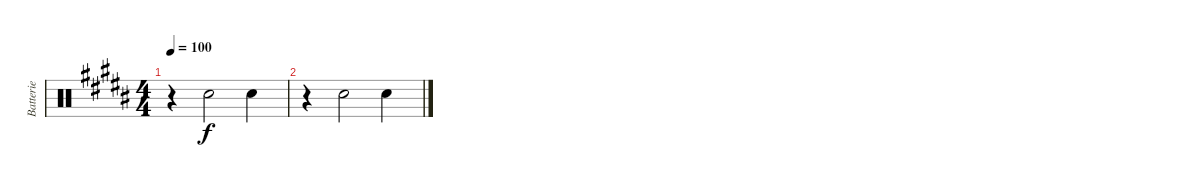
\track ("Batterie" "Batterie") {instrument percussion}
\staff {score}
\articulation defaults
\ts (4 4)
\tempo 100
\clef neutral
\ks b
r.4{dy f} "Snare (hit) 2".2 "Snare (hit) 2".4 |
r.4 "Snare (hit) 2".2 "Snare (hit) 2".4
